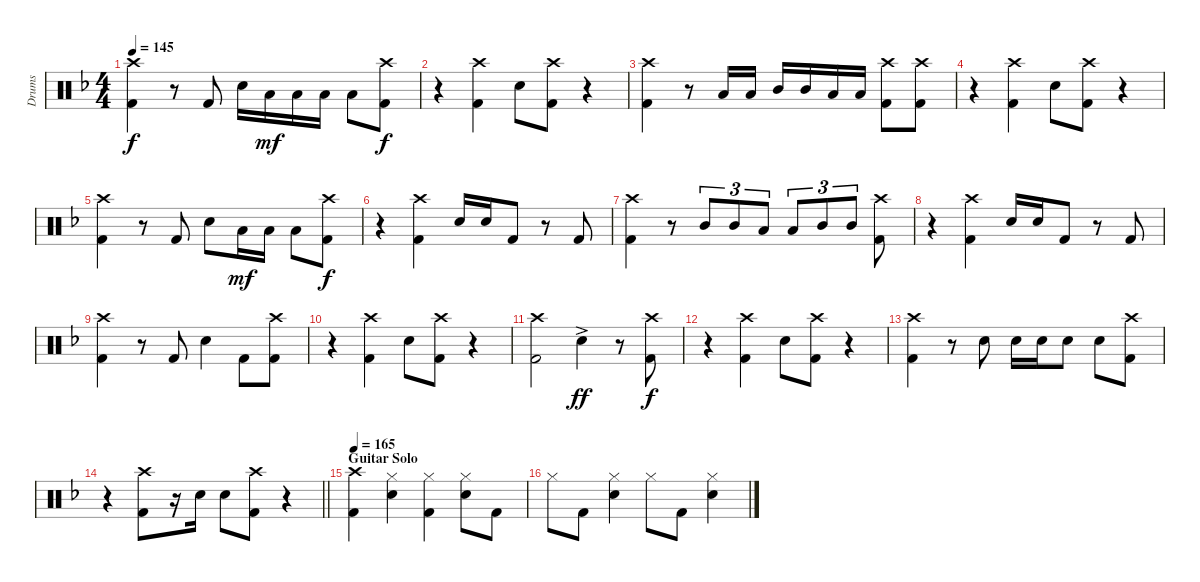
\track ("Drums" "Drums") {instrument percussion}
\staff {score}
\articulation defaults
\ts (4 4)
\tempo 145
\clef neutral
\ks f
("Crash high (hit)" "Kick (hit) 2").4{dy f} r.8 "Kick (hit) 2".8 "Electric Snare (hit)".16 "Low Tom (hit)".16{dy mf} "Low Tom (hit)".16 "Low Tom (hit)".16 "Low Tom (hit)".8 ("Crash high (hit)" "Kick (hit) 2").8{dy f} |
r.4 ("Crash high (hit)" "Kick (hit) 2").4 "Electric Snare (hit)".8 ("Crash high (hit)" "Kick (hit) 2").8 r.4 |
("Crash high (hit)" "Kick (hit) 2").4 r.8 "Low Tom (hit)".16 "Low Tom (hit)".16 "Mid Tom (hit)".16 "Mid Tom (hit)".16 "Low Tom (hit)".16 "Low Tom (hit)".16 ("Crash high (hit)" "Kick (hit) 2").8 ("Crash high (hit)" "Kick (hit) 2").8 |
r.4 ("Crash high (hit)" "Kick (hit) 2").4 "Electric Snare (hit)".8 ("Crash high (hit)" "Kick (hit) 2").8 r.4 |
("Crash high (hit)" "Kick (hit) 2").4 r.8 "Kick (hit) 2".8 "Electric Snare (hit)".8 "Low Tom (hit)".16{dy mf} "Low Tom (hit)".16 "Low Tom (hit)".8 ("Crash high (hit)" "Kick (hit) 2").8{dy f} |
r.4 ("Crash high (hit)" "Kick (hit) 2").4 "Electric Snare (hit)".16 "Electric Snare (hit)".16 "Kick (hit) 2".8 r.8 "Kick (hit) 2".8 |
("Crash high (hit)" "Kick (hit) 2").4 r.8 "Mid Tom (hit)".8{tu (3 2)} "Mid Tom (hit)".8{tu (3 2)} "Low Tom (hit)".8{tu (3 2)} "Low Tom (hit)".8{tu (3 2)} "Mid Tom (hit)".8{tu (3 2)} "Mid Tom (hit)".8{tu (3 2)} ("Crash high (hit)" "Kick (hit) 2").8 |
r.4 ("Crash high (hit)" "Kick (hit) 2").4 "Electric Snare (hit)".16 "Electric Snare (hit)".16 "Kick (hit) 2".8 r.8 "Kick (hit) 2".8 |
("Crash high (hit)" "Kick (hit) 2").4 r.8 "Kick (hit) 2".8 "Electric Snare (hit)".4 "Kick (hit) 2".8 ("Crash high (hit)" "Kick (hit) 2").8 |
r.4 ("Crash high (hit)" "Kick (hit) 2").4 "Electric Snare (hit)".8 ("Crash high (hit)" "Kick (hit) 2").8 r.4 |
("Crash high (hit)" "Kick (hit) 2").2 "Electric Snare (hit)"{ac}.4{dy ff} r.8 ("Crash high (hit)" "Kick (hit) 2").8{dy f} |
r.4 ("Crash high (hit)" "Kick (hit) 2").4 "Electric Snare (hit)".8 ("Crash high (hit)" "Kick (hit) 2").8 r.4 |
("Crash high (hit)" "Kick (hit) 2").4 r.8 "Electric Snare (hit)".8 "Electric Snare (hit)".16 "Electric Snare (hit)".16 "Electric Snare (hit)".8 "Electric Snare (hit)".8 ("Crash high (hit)" "Kick (hit) 2").8 |
\barLineRight lightlight
r.4 ("Crash high (hit)" "Kick (hit) 2").8 r.16 "Electric Snare (hit)".16 "Electric Snare (hit)".8 ("Crash high (hit)" "Kick (hit) 2").8 r.4 |
\section ("" "Guitar Solo")
\tempo 165
("Crash high (hit)" "Kick (hit) 2").4 ("Hi-Hat (closed)" "Electric Snare (hit)").4 ("Hi-Hat (closed)" "Kick (hit) 2").4 ("Hi-Hat (closed)" "Electric Snare (hit)").8 "Kick (hit) 2".8 |
"Hi-Hat (closed)".8 "Kick (hit) 2".8 ("Hi-Hat (closed)" "Electric Snare (hit)").4 "Hi-Hat (closed)".8 "Kick (hit) 2".8 ("Hi-Hat (closed)" "Electric Snare (hit)").4
